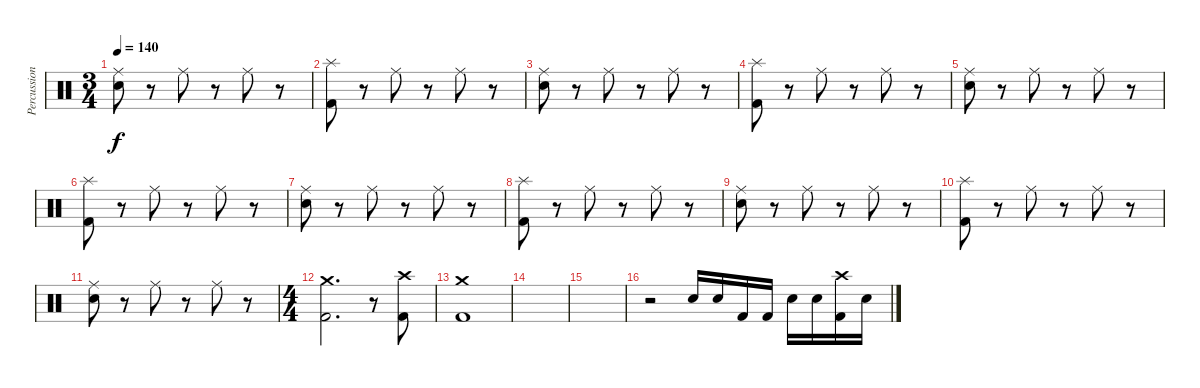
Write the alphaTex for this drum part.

\track ("Percussion" "Percussion") {instrument percussion}
\staff {score}
\articulation defaults
\ts (3 4)
\tempo 140
\clef neutral
\ks c
("Ride (middle)" "Electric Snare (hit)").8{dy f} r.8 "Ride (middle)".8 r.8 "Ride (middle)".8 r.8 |
("Splash (hit)" "Kick (hit) 2").8 r.8 "Ride (middle)".8 r.8 "Ride (middle)".8 r.8 |
("Ride (middle)" "Electric Snare (hit)").8 r.8 "Ride (middle)".8 r.8 "Ride (middle)".8 r.8 |
("Splash (hit)" "Kick (hit) 2").8 r.8 "Ride (middle)".8 r.8 "Ride (middle)".8 r.8 |
("Ride (middle)" "Electric Snare (hit)").8 r.8 "Ride (middle)".8 r.8 "Ride (middle)".8 r.8 |
("Splash (hit)" "Kick (hit) 2").8 r.8 "Ride (middle)".8 r.8 "Ride (middle)".8 r.8 |
("Ride (middle)" "Electric Snare (hit)").8 r.8 "Ride (middle)".8 r.8 "Ride (middle)".8 r.8 |
("Splash (hit)" "Kick (hit) 2").8 r.8 "Ride (middle)".8 r.8 "Ride (middle)".8 r.8 |
("Ride (middle)" "Electric Snare (hit)").8 r.8 "Ride (middle)".8 r.8 "Ride (middle)".8 r.8 |
("Splash (hit)" "Kick (hit) 2").8 r.8 "Ride (middle)".8 r.8 "Ride (middle)".8 r.8 |
("Ride (middle)" "Electric Snare (hit)").8 r.8 "Ride (middle)".8 r.8 "Ride (middle)".8 r.8 |
\ts (4 4)
("Crash medium (hit)" "Kick (hit) 2").2{d} r.8 ("Crash high (hit)" "Kick (hit) 2").8 |
("Crash medium (hit)" "Kick (hit) 2").1 |
|
|
r.2 "Electric Snare (hit)".16 "Electric Snare (hit)".16 "Kick (hit) 2".16 "Kick (hit) 2".16 "Electric Snare (hit)".16 "Electric Snare (hit)".16 ("Crash high (hit)" "Kick (hit) 2").16 "Electric Snare (hit)".16
